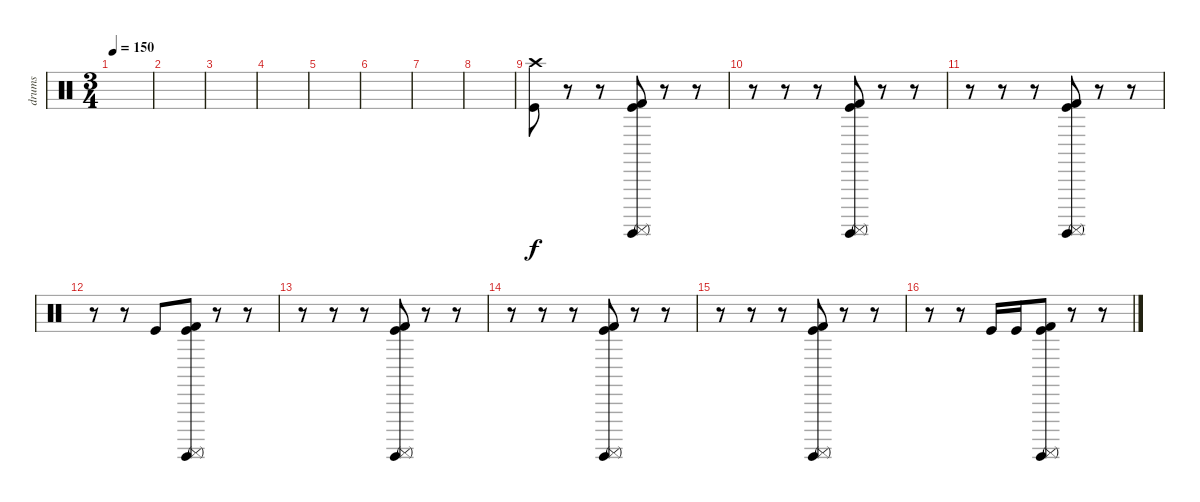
\track ("drums" "drums") {instrument percussion}
\staff {score}
\articulation defaults
\ts (3 4)
\tempo 150
\clef neutral
\ks c
|
|
|
|
|
|
|
|
("Crash high (hit)" "Kick (hit)").8 r.8 r.8 ("Surdo (hit)" "Kick (hit) 2" "Surdo (mute)" "Kick (hit)").8 r.8 r.8 |
r.8 r.8 r.8 ("Surdo (hit)" "Kick (hit) 2" "Surdo (mute)" "Kick (hit)").8 r.8 r.8 |
r.8 r.8 r.8 ("Surdo (hit)" "Kick (hit) 2" "Surdo (mute)" "Kick (hit)").8 r.8 r.8 |
r.8 r.8 "Kick (hit)".8 ("Surdo (hit)" "Kick (hit) 2" "Surdo (mute)" "Kick (hit)").8 r.8 r.8 |
r.8 r.8 r.8 ("Surdo (hit)" "Kick (hit) 2" "Surdo (mute)" "Kick (hit)").8 r.8 r.8 |
r.8 r.8 r.8 ("Surdo (hit)" "Kick (hit) 2" "Surdo (mute)" "Kick (hit)").8 r.8 r.8 |
r.8 r.8 r.8 ("Surdo (hit)" "Kick (hit) 2" "Surdo (mute)" "Kick (hit)").8 r.8 r.8 |
r.8 r.8 "Kick (hit)".16 "Kick (hit)".16 ("Surdo (hit)" "Kick (hit) 2" "Surdo (mute)" "Kick (hit)").8 r.8 r.8
